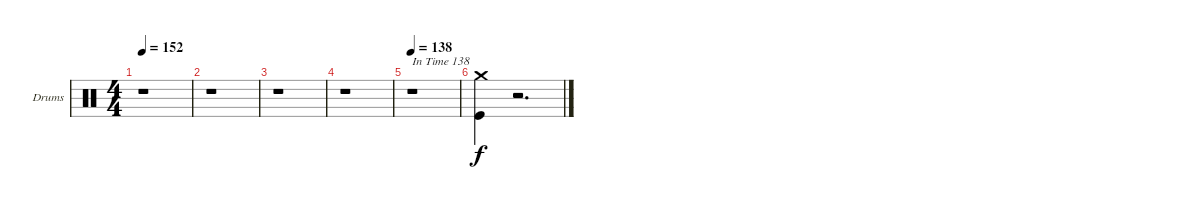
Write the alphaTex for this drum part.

\bracketExtendMode groupsimilarinstruments
\firstSystemTrackNameOrientation horizontal
\otherSystemsTrackNameOrientation horizontal
\track ("Drumkit" "Drums") {instrument percussion}
\staff {score}
\articulation defaults
\ts (4 4)
\tempo 152
\clef neutral
\ks c
r.1{dy f} |
r.1 |
r.1 |
r.1 |
\tempo 138
r.1{txt "In Time 138"} |
("Crash medium (hit)" "Kick (hit)").4 r.2{d}
